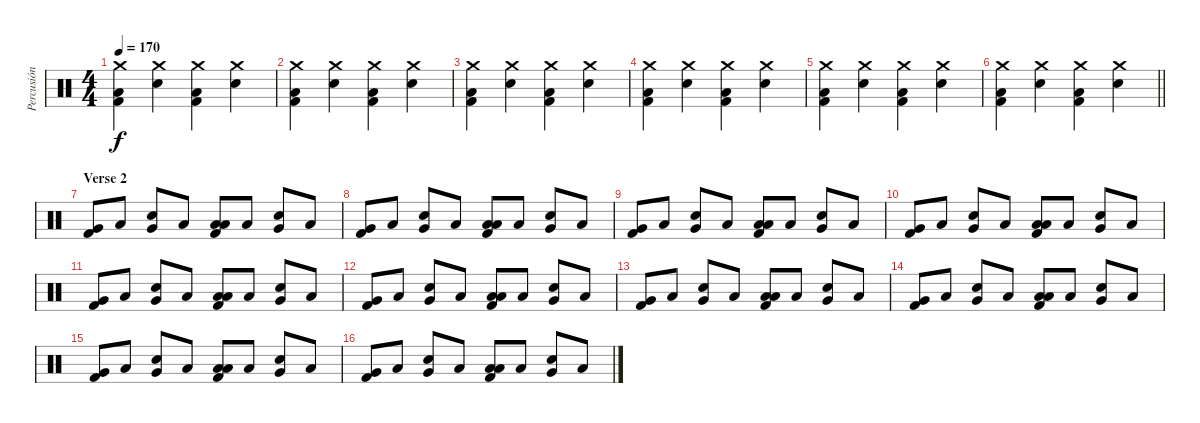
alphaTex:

\track ("Percusión" "Percusión") {instrument percussion}
\staff {score}
\articulation defaults
\ts (4 4)
\tempo 170
\clef neutral
\ks c
("Crash medium (hit)" "Low Floor Tom (hit)" "Kick (hit) 2").4{dy f} ("Crash medium (hit)" "Snare (hit) 2").4 ("Crash medium (hit)" "Low Floor Tom (hit)" "Kick (hit) 2").4 ("Crash medium (hit)" "Snare (hit) 2").4 |
("Crash medium (hit)" "Low Floor Tom (hit)" "Kick (hit) 2").4 ("Crash medium (hit)" "Snare (hit) 2").4 ("Crash medium (hit)" "Low Floor Tom (hit)" "Kick (hit) 2").4 ("Crash medium (hit)" "Snare (hit) 2").4 |
("Crash medium (hit)" "Low Floor Tom (hit)" "Kick (hit) 2").4 ("Crash medium (hit)" "Snare (hit) 2").4 ("Crash medium (hit)" "Low Floor Tom (hit)" "Kick (hit) 2").4 ("Crash medium (hit)" "Snare (hit) 2").4 |
("Crash medium (hit)" "Low Floor Tom (hit)" "Kick (hit) 2").4 ("Crash medium (hit)" "Snare (hit) 2").4 ("Crash medium (hit)" "Low Floor Tom (hit)" "Kick (hit) 2").4 ("Crash medium (hit)" "Snare (hit) 2").4 |
("Crash medium (hit)" "Low Floor Tom (hit)" "Kick (hit) 2").4 ("Crash medium (hit)" "Snare (hit) 2").4 ("Crash medium (hit)" "Low Floor Tom (hit)" "Kick (hit) 2").4 ("Crash medium (hit)" "Snare (hit) 2").4 |
\barLineRight lightlight
("Crash medium (hit)" "Low Floor Tom (hit)" "Kick (hit) 2").4 ("Crash medium (hit)" "Snare (hit) 2").4 ("Crash medium (hit)" "Low Floor Tom (hit)" "Kick (hit) 2").4 ("Crash medium (hit)" "Snare (hit) 2").4 |
\section ("" "Verse 2")
("Very Low Tom (hit)" "Kick (hit) 2").8 "Low Tom (hit)".8 ("Snare (hit) 2" "Very Low Tom (hit)").8 "Low Tom (hit)".8 ("Low Tom (hit)" "Low Floor Tom (hit)" "Kick (hit) 2").8 "Low Tom (hit)".8 ("Snare (hit) 2" "Very Low Tom (hit)").8 "Low Tom (hit)".8 |
("Very Low Tom (hit)" "Kick (hit) 2").8 "Low Tom (hit)".8 ("Snare (hit) 2" "Very Low Tom (hit)").8 "Low Tom (hit)".8 ("Low Tom (hit)" "Low Floor Tom (hit)" "Kick (hit) 2").8 "Low Tom (hit)".8 ("Snare (hit) 2" "Very Low Tom (hit)").8 "Low Tom (hit)".8 |
("Very Low Tom (hit)" "Kick (hit) 2").8 "Low Tom (hit)".8 ("Snare (hit) 2" "Very Low Tom (hit)").8 "Low Tom (hit)".8 ("Low Tom (hit)" "Low Floor Tom (hit)" "Kick (hit) 2").8 "Low Tom (hit)".8 ("Snare (hit) 2" "Very Low Tom (hit)").8 "Low Tom (hit)".8 |
("Very Low Tom (hit)" "Kick (hit) 2").8 "Low Tom (hit)".8 ("Snare (hit) 2" "Very Low Tom (hit)").8 "Low Tom (hit)".8 ("Low Tom (hit)" "Low Floor Tom (hit)" "Kick (hit) 2").8 "Low Tom (hit)".8 ("Snare (hit) 2" "Very Low Tom (hit)").8 "Low Tom (hit)".8 |
("Very Low Tom (hit)" "Kick (hit) 2").8 "Low Tom (hit)".8 ("Snare (hit) 2" "Very Low Tom (hit)").8 "Low Tom (hit)".8 ("Low Tom (hit)" "Low Floor Tom (hit)" "Kick (hit) 2").8 "Low Tom (hit)".8 ("Snare (hit) 2" "Very Low Tom (hit)").8 "Low Tom (hit)".8 |
("Very Low Tom (hit)" "Kick (hit) 2").8 "Low Tom (hit)".8 ("Snare (hit) 2" "Very Low Tom (hit)").8 "Low Tom (hit)".8 ("Low Tom (hit)" "Low Floor Tom (hit)" "Kick (hit) 2").8 "Low Tom (hit)".8 ("Snare (hit) 2" "Very Low Tom (hit)").8 "Low Tom (hit)".8 |
("Very Low Tom (hit)" "Kick (hit) 2").8 "Low Tom (hit)".8 ("Snare (hit) 2" "Very Low Tom (hit)").8 "Low Tom (hit)".8 ("Low Tom (hit)" "Low Floor Tom (hit)" "Kick (hit) 2").8 "Low Tom (hit)".8 ("Snare (hit) 2" "Very Low Tom (hit)").8 "Low Tom (hit)".8 |
("Very Low Tom (hit)" "Kick (hit) 2").8 "Low Tom (hit)".8 ("Snare (hit) 2" "Very Low Tom (hit)").8 "Low Tom (hit)".8 ("Low Tom (hit)" "Low Floor Tom (hit)" "Kick (hit) 2").8 "Low Tom (hit)".8 ("Snare (hit) 2" "Very Low Tom (hit)").8 "Low Tom (hit)".8 |
("Very Low Tom (hit)" "Kick (hit) 2").8 "Low Tom (hit)".8 ("Snare (hit) 2" "Very Low Tom (hit)").8 "Low Tom (hit)".8 ("Low Tom (hit)" "Low Floor Tom (hit)" "Kick (hit) 2").8 "Low Tom (hit)".8 ("Snare (hit) 2" "Very Low Tom (hit)").8 "Low Tom (hit)".8 |
("Very Low Tom (hit)" "Kick (hit) 2").8 "Low Tom (hit)".8 ("Snare (hit) 2" "Very Low Tom (hit)").8 "Low Tom (hit)".8 ("Low Tom (hit)" "Low Floor Tom (hit)" "Kick (hit) 2").8 "Low Tom (hit)".8 ("Snare (hit) 2" "Very Low Tom (hit)").8 "Low Tom (hit)".8
